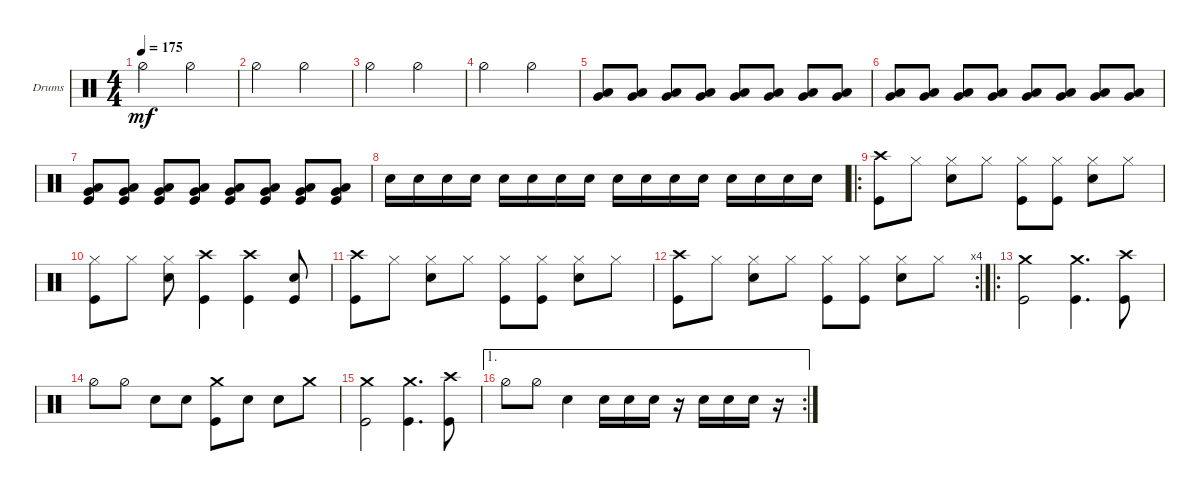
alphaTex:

\bracketExtendMode groupsimilarinstruments
\firstSystemTrackNameOrientation horizontal
\otherSystemsTrackNameOrientation horizontal
\track ("Drumkit" "Drums") {instrument percussion}
\staff {score}
\articulation defaults
\ts (4 4)
\tempo 175
\clef neutral
\ks c "Hi-Hat (half)".2{dy mf} "Hi-Hat (half)".2
|
"Hi-Hat (half)".2 "Hi-Hat (half)".2 |
"Hi-Hat (half)".2 "Hi-Hat (half)".2 |
"Hi-Hat (half)".2 "Hi-Hat (half)".2 |
("Very Low Tom (hit)" "Low Tom (hit)").8 ("Very Low Tom (hit)" "Low Tom (hit)").8 ("Very Low Tom (hit)" "Low Tom (hit)").8 ("Very Low Tom (hit)" "Low Tom (hit)").8 ("Very Low Tom (hit)" "Low Tom (hit)").8 ("Very Low Tom (hit)" "Low Tom (hit)").8 ("Very Low Tom (hit)" "Low Tom (hit)").8 ("Very Low Tom (hit)" "Low Tom (hit)").8 |
("Very Low Tom (hit)" "Low Tom (hit)").8 ("Very Low Tom (hit)" "Low Tom (hit)").8 ("Very Low Tom (hit)" "Low Tom (hit)").8 ("Very Low Tom (hit)" "Low Tom (hit)").8 ("Very Low Tom (hit)" "Low Tom (hit)").8 ("Very Low Tom (hit)" "Low Tom (hit)").8 ("Very Low Tom (hit)" "Low Tom (hit)").8 ("Very Low Tom (hit)" "Low Tom (hit)").8 |
("Very Low Tom (hit)" "Kick (hit)" "Low Tom (hit)").8 ("Very Low Tom (hit)" "Kick (hit)" "Low Tom (hit)").8 ("Very Low Tom (hit)" "Kick (hit)" "Low Tom (hit)").8 ("Very Low Tom (hit)" "Kick (hit)" "Low Tom (hit)").8 ("Very Low Tom (hit)" "Kick (hit)" "Low Tom (hit)").8 ("Very Low Tom (hit)" "Kick (hit)" "Low Tom (hit)").8 ("Very Low Tom (hit)" "Kick (hit)" "Low Tom (hit)").8 ("Very Low Tom (hit)" "Kick (hit)" "Low Tom (hit)").8 |
"Snare (hit) 2".16 "Snare (hit) 2".16 "Snare (hit) 2".16 "Snare (hit) 2".16 "Snare (hit) 2".16 "Snare (hit) 2".16 "Snare (hit) 2".16 "Snare (hit) 2".16 "Snare (hit) 2".16 "Snare (hit) 2".16 "Snare (hit) 2".16 "Snare (hit) 2".16 "Snare (hit) 2".16 "Snare (hit) 2".16 "Snare (hit) 2".16 "Snare (hit) 2".16 |
\ro
("Crash high (hit)" "Kick (hit)").8 "Hi-Hat (closed)".8 ("Hi-Hat (closed)" "Snare (hit) 2").8 "Hi-Hat (closed)".8 ("Hi-Hat (closed)" "Kick (hit)").8 ("Hi-Hat (closed)" "Kick (hit)").8 ("Hi-Hat (closed)" "Snare (hit) 2").8 "Hi-Hat (closed)".8 |
("Kick (hit)" "Hi-Hat (closed)").8 "Hi-Hat (closed)".8 ("Hi-Hat (closed)" "Snare (hit) 2").8 ("Crash high (hit)" "Kick (hit)").4 ("Crash high (hit)" "Kick (hit)").4 ("Snare (hit) 2" "Kick (hit)").8 |
("Crash high (hit)" "Kick (hit)").8 "Hi-Hat (closed)".8 ("Hi-Hat (closed)" "Snare (hit) 2").8 "Hi-Hat (closed)".8 ("Hi-Hat (closed)" "Kick (hit)").8 ("Hi-Hat (closed)" "Kick (hit)").8 ("Hi-Hat (closed)" "Snare (hit) 2").8 "Hi-Hat (closed)".8 |
\rc 4
("Crash high (hit)" "Kick (hit)").8 "Hi-Hat (closed)".8 ("Hi-Hat (closed)" "Snare (hit) 2").8 "Hi-Hat (closed)".8 ("Hi-Hat (closed)" "Kick (hit)").8 ("Hi-Hat (closed)" "Kick (hit)").8 ("Hi-Hat (closed)" "Snare (hit) 2").8 "Hi-Hat (closed)".8 |
\ro
("Crash medium (hit)" "Kick (hit)").2 ("Crash medium (hit)" "Kick (hit)").4{d} ("Kick (hit)" "Crash high (hit)").8 |
"Hi-Hat (half)".8 "Hi-Hat (half)".8 "Snare (hit) 2".8 "Snare (hit) 2".8 ("Kick (hit)" "Crash medium (hit)").8 "Snare (hit) 2".8 "Snare (hit) 2".8 "Crash medium (hit)".8 |
("Crash medium (hit)" "Kick (hit)").2 ("Crash medium (hit)" "Kick (hit)").4{d} ("Kick (hit)" "Crash high (hit)").8 |
\ae 1
\rc 2 "Hi-Hat (half)".8 "Hi-Hat (half)".8 "Snare (hit) 2".4 "Snare (hit) 2".16 "Snare (hit) 2".16 "Snare (hit) 2".16
r.16 "Snare (hit) 2".16 "Snare (hit) 2".16 "Snare (hit) 2".16 r.16
